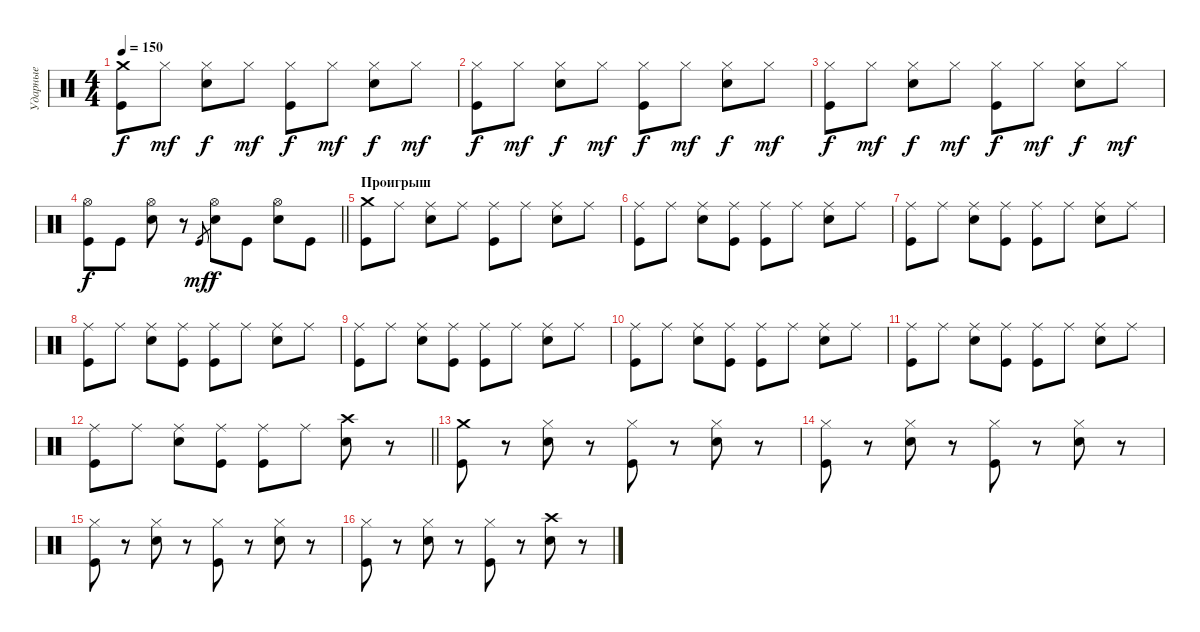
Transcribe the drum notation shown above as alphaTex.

\track ("Ударные" "Ударные") {instrument percussion}
\staff {score}
\articulation defaults
\ts (4 4)
\tempo 150
\clef neutral
\ks c
("Crash medium (hit)" "Kick (hit)").8{dy f} "Hi-Hat (closed)".8{dy mf} ("Hi-Hat (closed)" "Electric Snare (hit)").8{dy f} "Hi-Hat (closed)".8{dy mf} ("Hi-Hat (closed)" "Kick (hit)").8{dy f} "Hi-Hat (closed)".8{dy mf} ("Hi-Hat (closed)" "Electric Snare (hit)").8{dy f} "Hi-Hat (closed)".8{dy mf} |
("Hi-Hat (closed)" "Kick (hit)").8{dy f} "Hi-Hat (closed)".8{dy mf} ("Hi-Hat (closed)" "Electric Snare (hit)").8{dy f} "Hi-Hat (closed)".8{dy mf} ("Hi-Hat (closed)" "Kick (hit)").8{dy f} "Hi-Hat (closed)".8{dy mf} ("Hi-Hat (closed)" "Electric Snare (hit)").8{dy f} "Hi-Hat (closed)".8{dy mf} |
("Hi-Hat (closed)" "Kick (hit)").8{dy f} "Hi-Hat (closed)".8{dy mf} ("Hi-Hat (closed)" "Electric Snare (hit)").8{dy f} "Hi-Hat (closed)".8{dy mf} ("Hi-Hat (closed)" "Kick (hit)").8{dy f} "Hi-Hat (closed)".8{dy mf} ("Hi-Hat (closed)" "Electric Snare (hit)").8{dy f} "Hi-Hat (closed)".8{dy mf} |
\barLineRight lightlight
("Hi-Hat (open)" "Kick (hit)").8{dy f} "Kick (hit)".8 ("Hi-Hat (open)" "Electric Snare (hit)").8 r.8 "Kick (hit)".8{gr dy mf} ("Hi-Hat (open)" "Electric Snare (hit)").8{dy f} "Kick (hit)".8 ("Hi-Hat (open)" "Electric Snare (hit)").8 "Kick (hit)".8 |
\section ("" "Проигрыш")
("Crash medium (hit)" "Kick (hit)").8 "Ride (middle)".8 ("Ride (middle)" "Electric Snare (hit)").8 "Ride (middle)".8 ("Ride (middle)" "Kick (hit)").8 "Ride (middle)".8 ("Ride (middle)" "Electric Snare (hit)").8 "Ride (middle)".8 |
("Ride (middle)" "Kick (hit)").8 "Ride (middle)".8 ("Ride (middle)" "Electric Snare (hit)").8 ("Ride (middle)" "Kick (hit)").8 ("Ride (middle)" "Kick (hit)").8 "Ride (middle)".8 ("Ride (middle)" "Electric Snare (hit)").8 "Ride (middle)".8 |
("Ride (middle)" "Kick (hit)").8 "Ride (middle)".8 ("Ride (middle)" "Electric Snare (hit)").8 ("Ride (middle)" "Kick (hit)").8 ("Ride (middle)" "Kick (hit)").8 "Ride (middle)".8 ("Ride (middle)" "Electric Snare (hit)").8 "Ride (middle)".8 |
("Ride (middle)" "Kick (hit)").8 "Ride (middle)".8 ("Ride (middle)" "Electric Snare (hit)").8 ("Ride (middle)" "Kick (hit)").8 ("Ride (middle)" "Kick (hit)").8 "Ride (middle)".8 ("Ride (middle)" "Electric Snare (hit)").8 "Ride (middle)".8 |
("Ride (middle)" "Kick (hit)").8 "Ride (middle)".8 ("Ride (middle)" "Electric Snare (hit)").8 ("Ride (middle)" "Kick (hit)").8 ("Ride (middle)" "Kick (hit)").8 "Ride (middle)".8 ("Ride (middle)" "Electric Snare (hit)").8 "Ride (middle)".8 |
("Ride (middle)" "Kick (hit)").8 "Ride (middle)".8 ("Ride (middle)" "Electric Snare (hit)").8 ("Ride (middle)" "Kick (hit)").8 ("Ride (middle)" "Kick (hit)").8 "Ride (middle)".8 ("Ride (middle)" "Electric Snare (hit)").8 "Ride (middle)".8 |
("Ride (middle)" "Kick (hit)").8 "Ride (middle)".8 ("Ride (middle)" "Electric Snare (hit)").8 ("Ride (middle)" "Kick (hit)").8 ("Ride (middle)" "Kick (hit)").8 "Ride (middle)".8 ("Ride (middle)" "Electric Snare (hit)").8 "Ride (middle)".8 |
\barLineRight lightlight
("Ride (middle)" "Kick (hit)").8 "Ride (middle)".8 ("Ride (middle)" "Electric Snare (hit)").8 ("Ride (middle)" "Kick (hit)").8 ("Ride (middle)" "Kick (hit)").8 "Ride (middle)".8 ("Crash high (hit)" "Electric Snare (hit)").8 r.8 |
\section ("" " ")
("Crash medium (hit)" "Kick (hit)").8 r.8 ("Hi-Hat (closed)" "Electric Snare (hit)").8 r.8 ("Hi-Hat (closed)" "Kick (hit)").8 r.8 ("Hi-Hat (closed)" "Electric Snare (hit)").8 r.8 |
("Hi-Hat (closed)" "Kick (hit)").8 r.8 ("Hi-Hat (closed)" "Electric Snare (hit)").8 r.8 ("Hi-Hat (closed)" "Kick (hit)").8 r.8 ("Hi-Hat (closed)" "Electric Snare (hit)").8 r.8 |
("Hi-Hat (closed)" "Kick (hit)").8 r.8 ("Hi-Hat (closed)" "Electric Snare (hit)").8 r.8 ("Hi-Hat (closed)" "Kick (hit)").8 r.8 ("Hi-Hat (closed)" "Electric Snare (hit)").8 r.8 |
("Hi-Hat (closed)" "Kick (hit)").8 r.8 ("Hi-Hat (closed)" "Electric Snare (hit)").8 r.8 ("Hi-Hat (closed)" "Kick (hit)").8 r.8 ("Crash high (hit)" "Electric Snare (hit)").8 r.8
